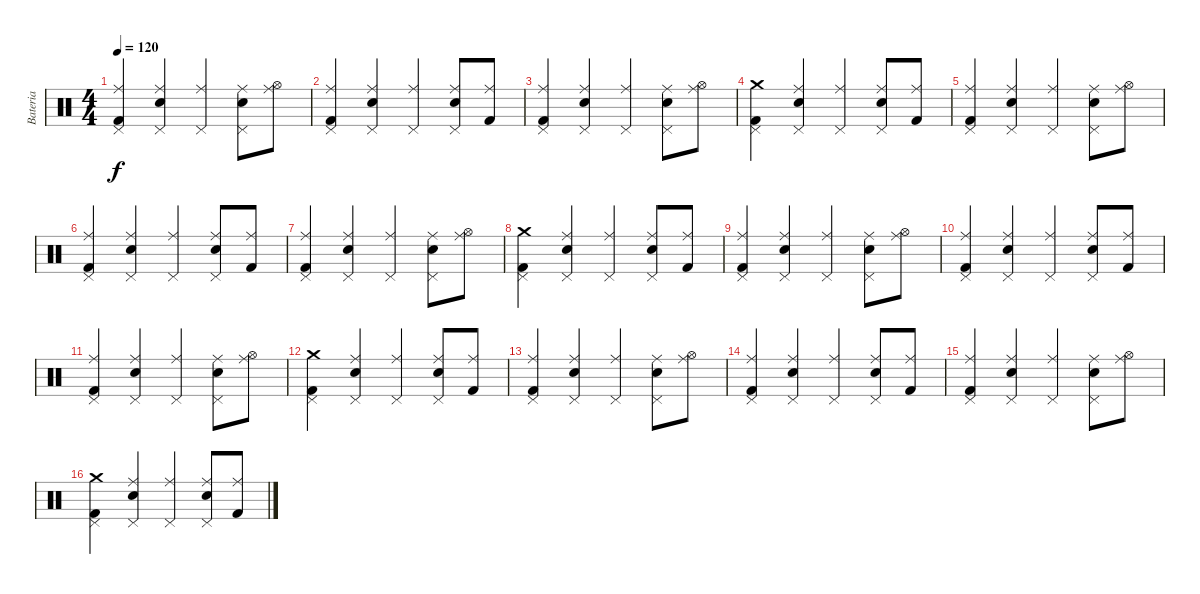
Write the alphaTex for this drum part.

\track ("Bateria" "Bateria") {instrument percussion}
\staff {score}
\articulation defaults
\ts (4 4)
\tempo 120
\clef neutral
\ks c
("Pedal Hi-Hat (hit)" "Kick (hit) 2" "Ride (middle)").4{dy f} ("Pedal Hi-Hat (hit)" "Electric Snare (hit)" "Ride (middle)").4 ("Pedal Hi-Hat (hit)" "Ride (middle)").4 ("Pedal Hi-Hat (hit)" "Electric Snare (hit)" "Ride (middle)").8 ("Hi-Hat (open)" "Ride (middle)").8 |
("Pedal Hi-Hat (hit)" "Kick (hit) 2" "Ride (middle)").4 ("Pedal Hi-Hat (hit)" "Electric Snare (hit)" "Ride (middle)").4 ("Pedal Hi-Hat (hit)" "Ride (middle)").4 ("Pedal Hi-Hat (hit)" "Electric Snare (hit)" "Ride (middle)").8 ("Kick (hit) 2" "Ride (middle)").8 |
("Pedal Hi-Hat (hit)" "Kick (hit) 2" "Ride (middle)").4 ("Pedal Hi-Hat (hit)" "Electric Snare (hit)" "Ride (middle)").4 ("Pedal Hi-Hat (hit)" "Ride (middle)").4 ("Pedal Hi-Hat (hit)" "Electric Snare (hit)" "Ride (middle)").8 ("Hi-Hat (open)" "Ride (middle)").8 |
("Pedal Hi-Hat (hit)" "Kick (hit) 2" "Crash medium (hit)").4 ("Pedal Hi-Hat (hit)" "Electric Snare (hit)" "Ride (middle)").4 ("Pedal Hi-Hat (hit)" "Ride (middle)").4 ("Pedal Hi-Hat (hit)" "Electric Snare (hit)" "Ride (middle)").8 ("Kick (hit) 2" "Ride (middle)").8 |
("Pedal Hi-Hat (hit)" "Kick (hit) 2" "Ride (middle)").4 ("Pedal Hi-Hat (hit)" "Electric Snare (hit)" "Ride (middle)").4 ("Pedal Hi-Hat (hit)" "Ride (middle)").4 ("Pedal Hi-Hat (hit)" "Electric Snare (hit)" "Ride (middle)").8 ("Hi-Hat (open)" "Ride (middle)").8 |
("Pedal Hi-Hat (hit)" "Kick (hit) 2" "Ride (middle)").4 ("Pedal Hi-Hat (hit)" "Electric Snare (hit)" "Ride (middle)").4 ("Pedal Hi-Hat (hit)" "Ride (middle)").4 ("Pedal Hi-Hat (hit)" "Electric Snare (hit)" "Ride (middle)").8 ("Kick (hit) 2" "Ride (middle)").8 |
("Pedal Hi-Hat (hit)" "Kick (hit) 2" "Ride (middle)").4 ("Pedal Hi-Hat (hit)" "Electric Snare (hit)" "Ride (middle)").4 ("Pedal Hi-Hat (hit)" "Ride (middle)").4 ("Pedal Hi-Hat (hit)" "Electric Snare (hit)" "Ride (middle)").8 ("Hi-Hat (open)" "Ride (middle)").8 |
("Pedal Hi-Hat (hit)" "Kick (hit) 2" "Crash medium (hit)").4 ("Pedal Hi-Hat (hit)" "Electric Snare (hit)" "Ride (middle)").4 ("Pedal Hi-Hat (hit)" "Ride (middle)").4 ("Pedal Hi-Hat (hit)" "Electric Snare (hit)" "Ride (middle)").8 ("Kick (hit) 2" "Ride (middle)").8 |
("Pedal Hi-Hat (hit)" "Kick (hit) 2" "Ride (middle)").4 ("Pedal Hi-Hat (hit)" "Electric Snare (hit)" "Ride (middle)").4 ("Pedal Hi-Hat (hit)" "Ride (middle)").4 ("Pedal Hi-Hat (hit)" "Electric Snare (hit)" "Ride (middle)").8 ("Hi-Hat (open)" "Ride (middle)").8 |
("Pedal Hi-Hat (hit)" "Kick (hit) 2" "Ride (middle)").4 ("Pedal Hi-Hat (hit)" "Electric Snare (hit)" "Ride (middle)").4 ("Pedal Hi-Hat (hit)" "Ride (middle)").4 ("Pedal Hi-Hat (hit)" "Electric Snare (hit)" "Ride (middle)").8 ("Kick (hit) 2" "Ride (middle)").8 |
("Pedal Hi-Hat (hit)" "Kick (hit) 2" "Ride (middle)").4 ("Pedal Hi-Hat (hit)" "Electric Snare (hit)" "Ride (middle)").4 ("Pedal Hi-Hat (hit)" "Ride (middle)").4 ("Pedal Hi-Hat (hit)" "Electric Snare (hit)" "Ride (middle)").8 ("Hi-Hat (open)" "Ride (middle)").8 |
("Pedal Hi-Hat (hit)" "Kick (hit) 2" "Crash medium (hit)").4 ("Pedal Hi-Hat (hit)" "Electric Snare (hit)" "Ride (middle)").4 ("Pedal Hi-Hat (hit)" "Ride (middle)").4 ("Pedal Hi-Hat (hit)" "Electric Snare (hit)" "Ride (middle)").8 ("Kick (hit) 2" "Ride (middle)").8 |
("Pedal Hi-Hat (hit)" "Kick (hit) 2" "Ride (middle)").4 ("Pedal Hi-Hat (hit)" "Electric Snare (hit)" "Ride (middle)").4 ("Pedal Hi-Hat (hit)" "Ride (middle)").4 ("Pedal Hi-Hat (hit)" "Electric Snare (hit)" "Ride (middle)").8 ("Hi-Hat (open)" "Ride (middle)").8 |
("Pedal Hi-Hat (hit)" "Kick (hit) 2" "Ride (middle)").4 ("Pedal Hi-Hat (hit)" "Electric Snare (hit)" "Ride (middle)").4 ("Pedal Hi-Hat (hit)" "Ride (middle)").4 ("Pedal Hi-Hat (hit)" "Electric Snare (hit)" "Ride (middle)").8 ("Kick (hit) 2" "Ride (middle)").8 |
("Pedal Hi-Hat (hit)" "Kick (hit) 2" "Ride (middle)").4 ("Pedal Hi-Hat (hit)" "Electric Snare (hit)" "Ride (middle)").4 ("Pedal Hi-Hat (hit)" "Ride (middle)").4 ("Pedal Hi-Hat (hit)" "Electric Snare (hit)" "Ride (middle)").8 ("Hi-Hat (open)" "Ride (middle)").8 |
("Pedal Hi-Hat (hit)" "Kick (hit) 2" "Crash medium (hit)").4 ("Pedal Hi-Hat (hit)" "Electric Snare (hit)" "Ride (middle)").4 ("Pedal Hi-Hat (hit)" "Ride (middle)").4 ("Pedal Hi-Hat (hit)" "Electric Snare (hit)" "Ride (middle)").8 ("Kick (hit) 2" "Ride (middle)").8
